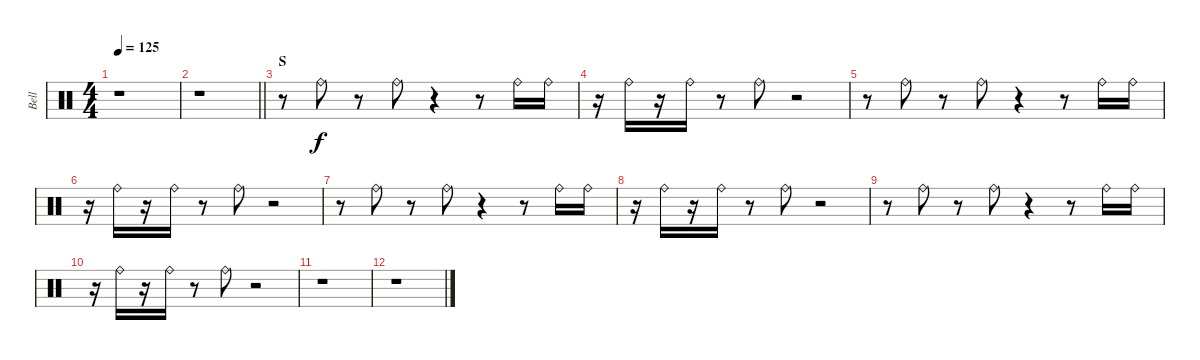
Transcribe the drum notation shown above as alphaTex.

\track ("Bell" "Bell") {instrument percussion}
\staff {score}
\articulation defaults
\ts (4 4)
\tempo 125
\clef neutral
\ks c
r.1{dy f} |
\barLineRight lightlight
r.1 |
\section ("" "S")
r.8 "Ride (bell)".8 r.8 "Ride (bell)".8 r.4 r.8 "Ride (bell)".16 "Ride (bell)".16 |
r.16 "Ride (bell)".16 r.16 "Ride (bell)".16 r.8 "Ride (bell)".8 r.2 |
r.8 "Ride (bell)".8 r.8 "Ride (bell)".8 r.4 r.8 "Ride (bell)".16 "Ride (bell)".16 |
r.16 "Ride (bell)".16 r.16 "Ride (bell)".16 r.8 "Ride (bell)".8 r.2 |
r.8 "Ride (bell)".8 r.8 "Ride (bell)".8 r.4 r.8 "Ride (bell)".16 "Ride (bell)".16 |
r.16 "Ride (bell)".16 r.16 "Ride (bell)".16 r.8 "Ride (bell)".8 r.2 |
r.8 "Ride (bell)".8 r.8 "Ride (bell)".8 r.4 r.8 "Ride (bell)".16 "Ride (bell)".16 |
r.16 "Ride (bell)".16 r.16 "Ride (bell)".16 r.8 "Ride (bell)".8 r.2 |
r.1 |
r.1
